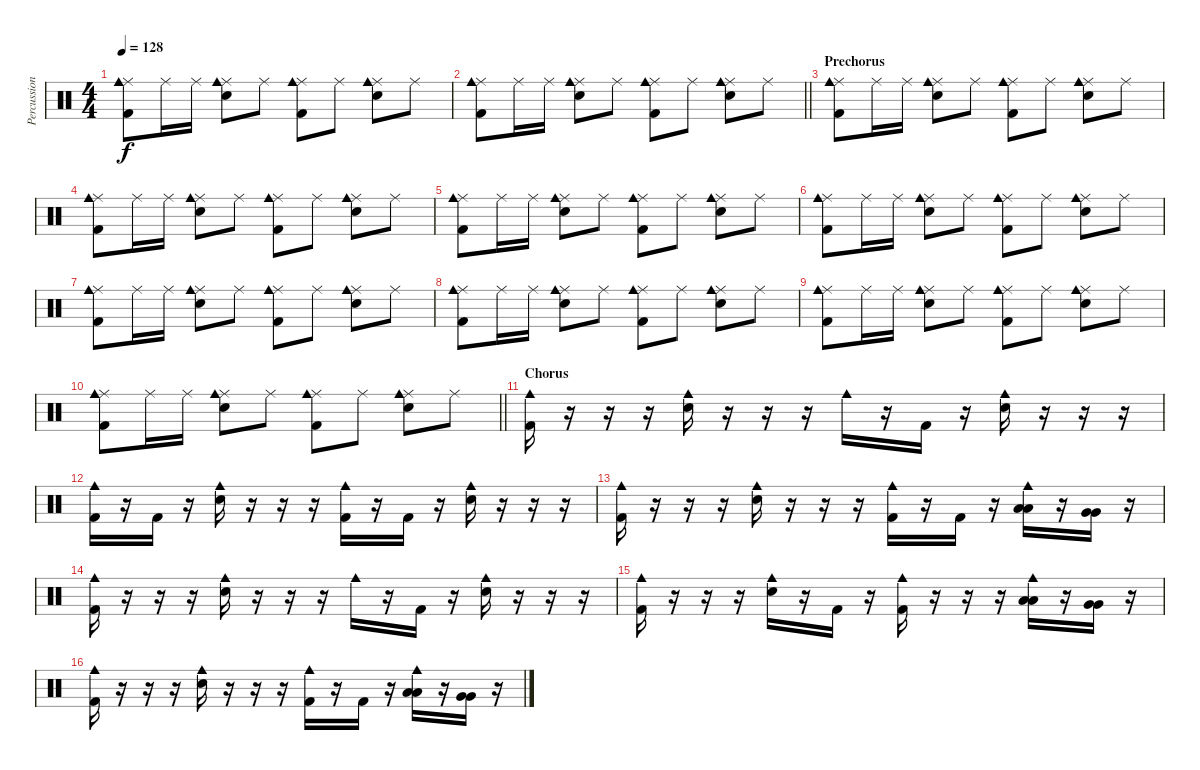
\track ("Percussion" "Percussion") {instrument percussion}
\staff {score}
\articulation defaults
\ts (4 4)
\tempo 128
\clef neutral
\ks c
("Ride (middle)" "Cowbell medium (hit)" "Kick (hit) 2").8{dy f} "Ride (middle)".16 "Ride (middle)".16 ("Ride (middle)" "Cowbell medium (hit)" "Snare (hit) 2").8 "Ride (middle)".8 ("Ride (middle)" "Cowbell medium (hit)" "Kick (hit) 2").8 "Ride (middle)".8 ("Ride (middle)" "Cowbell medium (hit)" "Snare (hit) 2").8 "Ride (middle)".8 |
\barLineRight lightlight
("Ride (middle)" "Cowbell medium (hit)" "Kick (hit) 2").8 "Ride (middle)".16 "Ride (middle)".16 ("Ride (middle)" "Cowbell medium (hit)" "Snare (hit) 2").8 "Ride (middle)".8 ("Ride (middle)" "Cowbell medium (hit)" "Kick (hit) 2").8 "Ride (middle)".8 ("Ride (middle)" "Cowbell medium (hit)" "Snare (hit) 2").8 "Ride (middle)".8 |
\section ("" "Prechorus")
("Ride (middle)" "Cowbell medium (hit)" "Kick (hit) 2").8 "Ride (middle)".16 "Ride (middle)".16 ("Ride (middle)" "Cowbell medium (hit)" "Snare (hit) 2").8 "Ride (middle)".8 ("Ride (middle)" "Cowbell medium (hit)" "Kick (hit) 2").8 "Ride (middle)".8 ("Ride (middle)" "Cowbell medium (hit)" "Snare (hit) 2").8 "Ride (middle)".8 |
("Ride (middle)" "Cowbell medium (hit)" "Kick (hit) 2").8 "Ride (middle)".16 "Ride (middle)".16 ("Ride (middle)" "Cowbell medium (hit)" "Snare (hit) 2").8 "Ride (middle)".8 ("Ride (middle)" "Cowbell medium (hit)" "Kick (hit) 2").8 "Ride (middle)".8 ("Ride (middle)" "Cowbell medium (hit)" "Snare (hit) 2").8 "Ride (middle)".8 |
("Ride (middle)" "Cowbell medium (hit)" "Kick (hit) 2").8 "Ride (middle)".16 "Ride (middle)".16 ("Ride (middle)" "Cowbell medium (hit)" "Snare (hit) 2").8 "Ride (middle)".8 ("Ride (middle)" "Cowbell medium (hit)" "Kick (hit) 2").8 "Ride (middle)".8 ("Ride (middle)" "Cowbell medium (hit)" "Snare (hit) 2").8 "Ride (middle)".8 |
("Ride (middle)" "Cowbell medium (hit)" "Kick (hit) 2").8 "Ride (middle)".16 "Ride (middle)".16 ("Ride (middle)" "Cowbell medium (hit)" "Snare (hit) 2").8 "Ride (middle)".8 ("Ride (middle)" "Cowbell medium (hit)" "Kick (hit) 2").8 "Ride (middle)".8 ("Ride (middle)" "Cowbell medium (hit)" "Snare (hit) 2").8 "Ride (middle)".8 |
("Ride (middle)" "Cowbell medium (hit)" "Kick (hit) 2").8 "Ride (middle)".16 "Ride (middle)".16 ("Ride (middle)" "Cowbell medium (hit)" "Snare (hit) 2").8 "Ride (middle)".8 ("Ride (middle)" "Cowbell medium (hit)" "Kick (hit) 2").8 "Ride (middle)".8 ("Ride (middle)" "Cowbell medium (hit)" "Snare (hit) 2").8 "Ride (middle)".8 |
("Ride (middle)" "Cowbell medium (hit)" "Kick (hit) 2").8 "Ride (middle)".16 "Ride (middle)".16 ("Ride (middle)" "Cowbell medium (hit)" "Snare (hit) 2").8 "Ride (middle)".8 ("Ride (middle)" "Cowbell medium (hit)" "Kick (hit) 2").8 "Ride (middle)".8 ("Ride (middle)" "Cowbell medium (hit)" "Snare (hit) 2").8 "Ride (middle)".8 |
("Ride (middle)" "Cowbell medium (hit)" "Kick (hit) 2").8 "Ride (middle)".16 "Ride (middle)".16 ("Ride (middle)" "Cowbell medium (hit)" "Snare (hit) 2").8 "Ride (middle)".8 ("Ride (middle)" "Cowbell medium (hit)" "Kick (hit) 2").8 "Ride (middle)".8 ("Ride (middle)" "Cowbell medium (hit)" "Snare (hit) 2").8 "Ride (middle)".8 |
\barLineRight lightlight
("Ride (middle)" "Cowbell medium (hit)" "Kick (hit) 2").8 "Ride (middle)".16 "Ride (middle)".16 ("Ride (middle)" "Cowbell medium (hit)" "Snare (hit) 2").8 "Ride (middle)".8 ("Ride (middle)" "Cowbell medium (hit)" "Kick (hit) 2").8 "Ride (middle)".8 ("Ride (middle)" "Cowbell medium (hit)" "Snare (hit) 2").8 "Ride (middle)".8 |
\section ("" "Chorus")
("Cowbell medium (hit)" "Kick (hit) 2").16 r.16 r.16 r.16 ("Cowbell medium (hit)" "Snare (hit) 2").16 r.16 r.16 r.16 "Cowbell medium (hit)".16 r.16 "Kick (hit) 2".16 r.16 ("Cowbell medium (hit)" "Snare (hit) 2").16 r.16 r.16 r.16 |
("Cowbell medium (hit)" "Kick (hit) 2").16 r.16 "Kick (hit) 2".16 r.16 ("Cowbell medium (hit)" "Snare (hit) 2").16 r.16 r.16 r.16 ("Cowbell medium (hit)" "Kick (hit) 2").16 r.16 "Kick (hit) 2".16 r.16 ("Cowbell medium (hit)" "Snare (hit) 2").16 r.16 r.16 r.16 |
("Cowbell medium (hit)" "Kick (hit) 2").16 r.16 r.16 r.16 ("Cowbell medium (hit)" "Snare (hit) 2").16 r.16 r.16 r.16 ("Cowbell medium (hit)" "Kick (hit) 2").16 r.16 "Kick (hit) 2".16 r.16 ("Cowbell medium (hit)" "Low Tom (hit)" "Low Tom (hit)").16 r.16 ("Very Low Tom (hit)" "Very Low Tom (hit)").16 r.16 |
("Cowbell medium (hit)" "Kick (hit) 2").16 r.16 r.16 r.16 ("Cowbell medium (hit)" "Snare (hit) 2").16 r.16 r.16 r.16 "Cowbell medium (hit)".16 r.16 "Kick (hit) 2".16 r.16 ("Cowbell medium (hit)" "Snare (hit) 2").16 r.16 r.16 r.16 |
("Cowbell medium (hit)" "Kick (hit) 2").16 r.16 r.16 r.16 ("Cowbell medium (hit)" "Snare (hit) 2").16 r.16 "Kick (hit) 2".16 r.16 ("Cowbell medium (hit)" "Kick (hit) 2").16 r.16 r.16 r.16 ("Cowbell medium (hit)" "Low Tom (hit)" "Low Tom (hit)").16 r.16 ("Very Low Tom (hit)" "Very Low Tom (hit)").16 r.16 |
("Cowbell medium (hit)" "Kick (hit) 2").16 r.16 r.16 r.16 ("Cowbell medium (hit)" "Snare (hit) 2").16 r.16 r.16 r.16 ("Cowbell medium (hit)" "Kick (hit) 2").16 r.16 "Kick (hit) 2".16 r.16 ("Cowbell medium (hit)" "Low Tom (hit)" "Low Tom (hit)").16 r.16 ("Very Low Tom (hit)" "Very Low Tom (hit)").16 r.16
